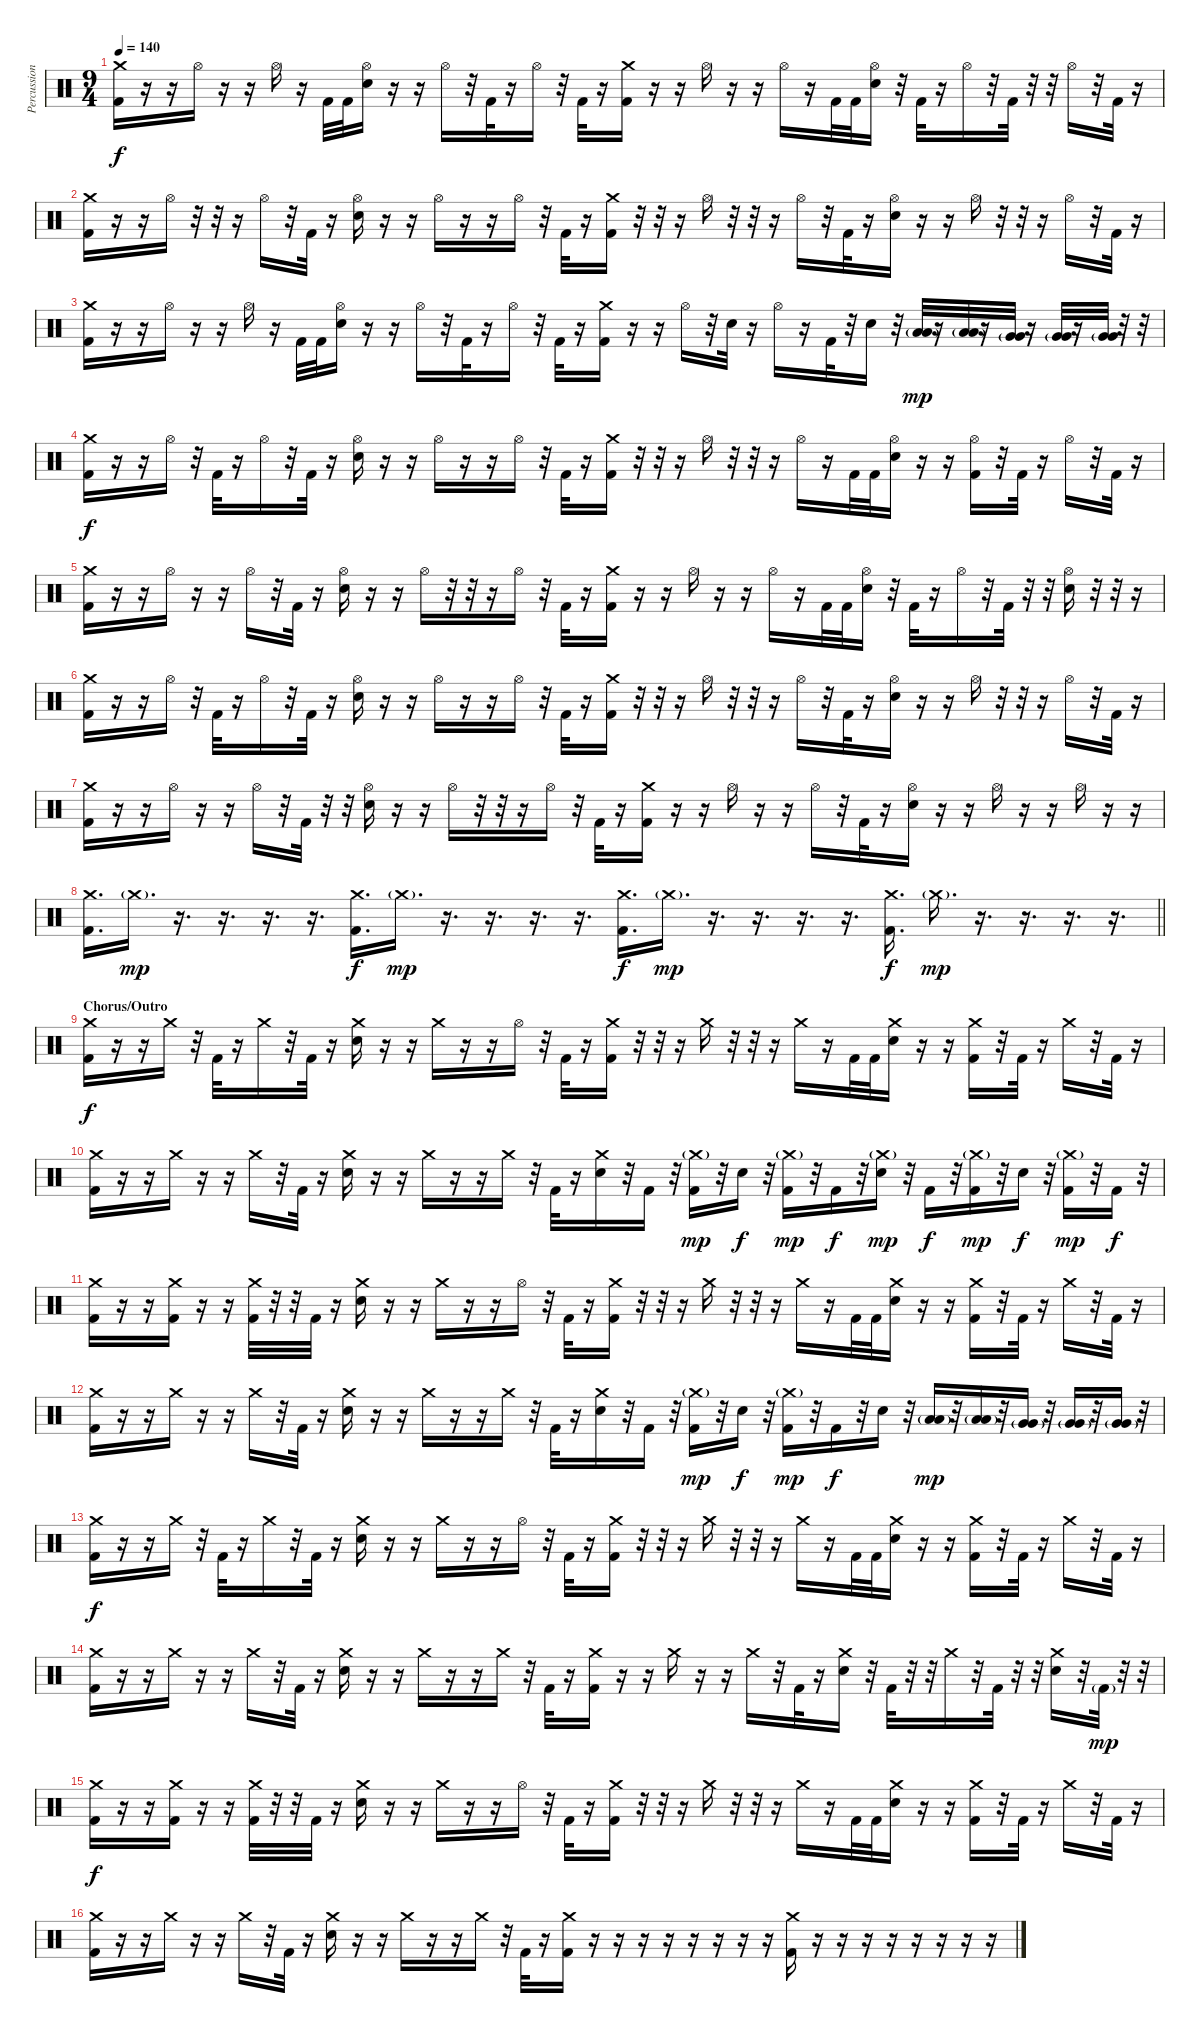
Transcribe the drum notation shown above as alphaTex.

\track ("Percussion" "Percussion") {instrument percussion}
\staff {score}
\articulation defaults
\ts (9 4)
\tempo 140
\clef neutral
\ks c
("Crash medium (hit)" "Kick (hit) 2").16{dy f} r.16 r.16 "Hi-Hat (open)".16 r.16 r.16 "Hi-Hat (open)".16 r.16 "Kick (hit) 2".32 "Kick (hit) 2".32 ("Hi-Hat (open)" "Electric Snare (hit)").16 r.16 r.16 "Hi-Hat (open)".16 r.32 "Kick (hit) 2".32 r.16 "Hi-Hat (open)".16 r.32 "Kick (hit) 2".32 r.16 ("Crash medium (hit)" "Kick (hit) 2").16 r.16 r.16 "Hi-Hat (open)".16 r.16 r.16 "Hi-Hat (open)".16 r.16 "Kick (hit) 2".32 "Kick (hit) 2".32 ("Hi-Hat (open)" "Electric Snare (hit)").16 r.32 "Kick (hit) 2".32 r.16 "Hi-Hat (open)".16 r.32 "Kick (hit) 2".32 r.32 r.32 "Hi-Hat (open)".16 r.32 "Kick (hit) 2".32 r.16 |
("Crash medium (hit)" "Kick (hit) 2").16 r.16 r.16 "Hi-Hat (open)".16 r.32 r.32 r.16 "Hi-Hat (open)".16 r.32 "Kick (hit) 2".32 r.16 ("Hi-Hat (open)" "Electric Snare (hit)").16 r.16 r.16 "Hi-Hat (open)".16 r.16 r.16 "Hi-Hat (open)".16 r.32 "Kick (hit) 2".32 r.16 ("Crash medium (hit)" "Kick (hit) 2").16 r.32 r.32 r.16 "Hi-Hat (open)".16 r.32 r.32 r.16 "Hi-Hat (open)".16 r.32 "Kick (hit) 2".32 r.16 ("Hi-Hat (open)" "Electric Snare (hit)").16 r.16 r.16 "Hi-Hat (open)".16 r.32 r.32 r.16 "Hi-Hat (open)".16 r.32 "Kick (hit) 2".32 r.16 |
("Crash medium (hit)" "Kick (hit) 2").16 r.16 r.16 "Hi-Hat (open)".16 r.16 r.16 "Hi-Hat (open)".16 r.16 "Kick (hit) 2".32 "Kick (hit) 2".32 ("Hi-Hat (open)" "Electric Snare (hit)").16 r.16 r.16 "Hi-Hat (open)".16 r.32 "Kick (hit) 2".32 r.16 "Hi-Hat (open)".16 r.32 "Kick (hit) 2".32 r.16 ("Crash medium (hit)" "Kick (hit) 2").16 r.16 r.16 "Hi-Hat (open)".16 r.32 "Electric Snare (hit)".32 r.16 "Hi-Hat (open)".16 r.16 "Kick (hit) 2".32 r.32 "Electric Snare (hit)".16 r.32 ("Low Tom (hit)"{g} "Low Tom (hit)").32{dy mp} r.16 ("Low Tom (hit)"{g} "Low Tom (hit)").32 r.16 ("Very Low Tom (hit)"{g} "Very Low Tom (hit)").32 r.16 ("Very Low Tom (hit)"{g} "Very Low Tom (hit)").32 r.16 ("Very Low Tom (hit)"{g} "Very Low Tom (hit)").32 r.32 r.32 |
("Crash medium (hit)" "Kick (hit) 2").16{dy f} r.16 r.16 "Hi-Hat (open)".16 r.32 "Kick (hit) 2".32 r.16 "Hi-Hat (open)".16 r.32 "Kick (hit) 2".32 r.16 ("Hi-Hat (open)" "Electric Snare (hit)").16 r.16 r.16 "Hi-Hat (open)".16 r.16 r.16 "Hi-Hat (open)".16 r.32 "Kick (hit) 2".32 r.16 ("Crash medium (hit)" "Kick (hit) 2").16 r.32 r.32 r.16 "Hi-Hat (open)".16 r.32 r.32 r.16 "Hi-Hat (open)".16 r.16 "Kick (hit) 2".32 "Kick (hit) 2".32 ("Hi-Hat (open)" "Electric Snare (hit)").16 r.16 r.16 ("Hi-Hat (open)" "Kick (hit) 2").16 r.32 "Kick (hit) 2".32 r.16 "Hi-Hat (open)".16 r.32 "Kick (hit) 2".32 r.16 |
("Crash medium (hit)" "Kick (hit) 2").16 r.16 r.16 "Hi-Hat (open)".16 r.16 r.16 "Hi-Hat (open)".16 r.32 "Kick (hit) 2".32 r.16 ("Hi-Hat (open)" "Electric Snare (hit)").16 r.16 r.16 "Hi-Hat (open)".16 r.32 r.32 r.16 "Hi-Hat (open)".16 r.32 "Kick (hit) 2".32 r.16 ("Crash medium (hit)" "Kick (hit) 2").16 r.16 r.16 "Hi-Hat (open)".16 r.16 r.16 "Hi-Hat (open)".16 r.16 "Kick (hit) 2".32 "Kick (hit) 2".32 ("Hi-Hat (open)" "Electric Snare (hit)").16 r.32 "Kick (hit) 2".32 r.16 "Hi-Hat (open)".16 r.32 "Kick (hit) 2".32 r.32 r.32 ("Hi-Hat (open)" "Electric Snare (hit)").16 r.32 r.32 r.16 |
("Crash medium (hit)" "Kick (hit) 2").16 r.16 r.16 "Hi-Hat (open)".16 r.32 "Kick (hit) 2".32 r.16 "Hi-Hat (open)".16 r.32 "Kick (hit) 2".32 r.16 ("Hi-Hat (open)" "Electric Snare (hit)").16 r.16 r.16 "Hi-Hat (open)".16 r.16 r.16 "Hi-Hat (open)".16 r.32 "Kick (hit) 2".32 r.16 ("Crash medium (hit)" "Kick (hit) 2").16 r.32 r.32 r.16 "Hi-Hat (open)".16 r.32 r.32 r.16 "Hi-Hat (open)".16 r.32 "Kick (hit) 2".32 r.16 ("Hi-Hat (open)" "Electric Snare (hit)").16 r.16 r.16 "Hi-Hat (open)".16 r.32 r.32 r.16 "Hi-Hat (open)".16 r.32 "Kick (hit) 2".32 r.16 |
("Crash medium (hit)" "Kick (hit) 2").16 r.16 r.16 "Hi-Hat (open)".16 r.16 r.16 "Hi-Hat (open)".16 r.32 "Kick (hit) 2".32 r.32 r.32 ("Hi-Hat (open)" "Electric Snare (hit)").16 r.16 r.16 "Hi-Hat (open)".16 r.32 r.32 r.16 "Hi-Hat (open)".16 r.32 "Kick (hit) 2".32 r.16 ("Crash medium (hit)" "Kick (hit) 2").16 r.16 r.16 "Hi-Hat (open)".16 r.16 r.16 "Hi-Hat (open)".16 r.32 "Kick (hit) 2".32 r.16 ("Hi-Hat (open)" "Electric Snare (hit)").16 r.16 r.16 "Hi-Hat (open)".16 r.16 r.16 "Hi-Hat (open)".16 r.16 r.16 |
\barLineRight lightlight
("Crash medium (hit)" "Kick (hit) 2").16{d} "Crash medium (hit)"{g}.16{d dy mp} r.16{d} r.16{d} r.16{d} r.16{d} ("Crash medium (hit)" "Kick (hit) 2").16{d dy f} "Crash medium (hit)"{g}.16{d dy mp} r.16{d} r.16{d} r.16{d} r.16{d} ("Crash medium (hit)" "Kick (hit) 2").16{d dy f} "Crash medium (hit)"{g}.16{d dy mp} r.16{d} r.16{d} r.16{d} r.16{d} ("Crash medium (hit)" "Kick (hit) 2").16{d dy f} "Crash medium (hit)"{g}.16{d dy mp} r.16{d} r.16{d} r.16{d} r.16{d} |
\section ("" "Chorus/Outro")
("Crash medium (hit)" "Kick (hit) 2").16{dy f} r.16 r.16 "Crash medium (hit)".16 r.32 "Kick (hit) 2".32 r.16 "Crash medium (hit)".16 r.32 "Kick (hit) 2".32 r.16 ("Crash medium (hit)" "Electric Snare (hit)").16 r.16 r.16 "Crash medium (hit)".16 r.16 r.16 "Hi-Hat (open)".16 r.32 "Kick (hit) 2".32 r.16 ("Crash medium (hit)" "Kick (hit) 2").16 r.32 r.32 r.16 "Crash medium (hit)".16 r.32 r.32 r.16 "Crash medium (hit)".16 r.16 "Kick (hit) 2".32 "Kick (hit) 2".32 ("Crash medium (hit)" "Electric Snare (hit)").16 r.16 r.16 ("Crash medium (hit)" "Kick (hit) 2").16 r.32 "Kick (hit) 2".32 r.16 "Crash medium (hit)".16 r.32 "Kick (hit) 2".32 r.16 |
("Crash medium (hit)" "Kick (hit) 2").16 r.16 r.16 "Crash medium (hit)".16 r.16 r.16 "Crash medium (hit)".16 r.32 "Kick (hit) 2".32 r.16 ("Crash medium (hit)" "Electric Snare (hit)").16 r.16 r.16 "Crash medium (hit)".16 r.16 r.16 "Crash medium (hit)".16 r.32 "Kick (hit) 2".32 r.16 ("Crash medium (hit)" "Electric Snare (hit)").16 r.32 "Kick (hit) 2".16 r.32 ("Crash medium (hit)"{g} "Kick (hit) 2").16{dy mp} r.32 "Electric Snare (hit)".16{dy f} r.32 ("Crash medium (hit)"{g} "Kick (hit) 2").16{dy mp} r.32 "Kick (hit) 2".16{dy f} r.32 ("Crash medium (hit)"{g} "Electric Snare (hit)").16{dy mp} r.32 "Kick (hit) 2".16{dy f} r.32 ("Crash medium (hit)"{g} "Kick (hit) 2").16{dy mp} r.32 "Electric Snare (hit)".16{dy f} r.32 ("Crash medium (hit)"{g} "Kick (hit) 2").16{dy mp} r.32 "Kick (hit) 2".16{dy f} r.32 |
("Crash medium (hit)" "Kick (hit) 2").16 r.16 r.16 ("Crash medium (hit)" "Kick (hit) 2").16 r.16 r.16 ("Crash medium (hit)" "Kick (hit) 2").32 r.32 r.32 "Kick (hit) 2".32 r.16 ("Crash medium (hit)" "Electric Snare (hit)").16 r.16 r.16 "Crash medium (hit)".16 r.16 r.16 "Hi-Hat (open)".16 r.32 "Kick (hit) 2".32 r.16 ("Crash medium (hit)" "Kick (hit) 2").16 r.32 r.32 r.16 "Crash medium (hit)".16 r.32 r.32 r.16 "Crash medium (hit)".16 r.16 "Kick (hit) 2".32 "Kick (hit) 2".32 ("Crash medium (hit)" "Electric Snare (hit)").16 r.16 r.16 ("Crash medium (hit)" "Kick (hit) 2").16 r.32 "Kick (hit) 2".32 r.16 "Crash medium (hit)".16 r.32 "Kick (hit) 2".32 r.16 |
("Crash medium (hit)" "Kick (hit) 2").16 r.16 r.16 "Crash medium (hit)".16 r.16 r.16 "Crash medium (hit)".16 r.32 "Kick (hit) 2".32 r.16 ("Crash medium (hit)" "Electric Snare (hit)").16 r.16 r.16 "Crash medium (hit)".16 r.16 r.16 "Crash medium (hit)".16 r.32 "Kick (hit) 2".32 r.16 ("Crash medium (hit)" "Electric Snare (hit)").16 r.32 "Kick (hit) 2".16 r.32 ("Crash medium (hit)"{g} "Kick (hit) 2").16{dy mp} r.32 "Electric Snare (hit)".16{dy f} r.32 ("Crash medium (hit)"{g} "Kick (hit) 2").16{dy mp} r.32 "Kick (hit) 2".16{dy f} r.32 "Electric Snare (hit)".16 r.32 ("Low Tom (hit)"{g} "Low Tom (hit)").16{dy mp} r.32 ("Low Tom (hit)"{g} "Low Tom (hit)").16 r.32 ("Very Low Tom (hit)"{g} "Very Low Tom (hit)").16 r.32 ("Very Low Tom (hit)"{g} "Very Low Tom (hit)").16 r.32 ("Very Low Tom (hit)"{g} "Very Low Tom (hit)").16 r.32 |
("Crash medium (hit)" "Kick (hit) 2").16{dy f} r.16 r.16 "Crash medium (hit)".16 r.32 "Kick (hit) 2".32 r.16 "Crash medium (hit)".16 r.32 "Kick (hit) 2".32 r.16 ("Crash medium (hit)" "Electric Snare (hit)").16 r.16 r.16 "Crash medium (hit)".16 r.16 r.16 "Hi-Hat (open)".16 r.32 "Kick (hit) 2".32 r.16 ("Crash medium (hit)" "Kick (hit) 2").16 r.32 r.32 r.16 "Crash medium (hit)".16 r.32 r.32 r.16 "Crash medium (hit)".16 r.16 "Kick (hit) 2".32 "Kick (hit) 2".32 ("Crash medium (hit)" "Electric Snare (hit)").16 r.16 r.16 ("Crash medium (hit)" "Kick (hit) 2").16 r.32 "Kick (hit) 2".32 r.16 "Crash medium (hit)".16 r.32 "Kick (hit) 2".32 r.16 |
("Crash medium (hit)" "Kick (hit) 2").16 r.16 r.16 "Crash medium (hit)".16 r.16 r.16 "Crash medium (hit)".16 r.32 "Kick (hit) 2".32 r.16 ("Crash medium (hit)" "Electric Snare (hit)").16 r.16 r.16 "Crash medium (hit)".16 r.16 r.16 "Crash medium (hit)".16 r.32 "Kick (hit) 2".32 r.16 ("Crash medium (hit)" "Kick (hit) 2").16 r.16 r.16 "Crash medium (hit)".16 r.16 r.16 "Crash medium (hit)".16 r.32 "Kick (hit) 2".32 r.16 ("Crash medium (hit)" "Electric Snare (hit)").16 r.32 "Kick (hit) 2".32 r.32 r.32 "Crash medium (hit)".16 r.32 "Kick (hit) 2".32 r.32 r.32 ("Crash medium (hit)" "Electric Snare (hit)").16 r.32 "Kick (hit) 2"{g}.32{dy mp} r.32 r.32 |
("Crash medium (hit)" "Kick (hit) 2").16{dy f} r.16 r.16 ("Crash medium (hit)" "Kick (hit) 2").16 r.16 r.16 ("Crash medium (hit)" "Kick (hit) 2").32 r.32 r.32 "Kick (hit) 2".32 r.16 ("Crash medium (hit)" "Electric Snare (hit)").16 r.16 r.16 "Crash medium (hit)".16 r.16 r.16 "Hi-Hat (open)".16 r.32 "Kick (hit) 2".32 r.16 ("Crash medium (hit)" "Kick (hit) 2").16 r.32 r.32 r.16 "Crash medium (hit)".16 r.32 r.32 r.16 "Crash medium (hit)".16 r.16 "Kick (hit) 2".32 "Kick (hit) 2".32 ("Crash medium (hit)" "Electric Snare (hit)").16 r.16 r.16 ("Crash medium (hit)" "Kick (hit) 2").16 r.32 "Kick (hit) 2".32 r.16 "Crash medium (hit)".16 r.32 "Kick (hit) 2".32 r.16 |
("Crash medium (hit)" "Kick (hit) 2").16 r.16 r.16 "Crash medium (hit)".16 r.16 r.16 "Crash medium (hit)".16 r.32 "Kick (hit) 2".32 r.16 ("Crash medium (hit)" "Electric Snare (hit)").16 r.16 r.16 "Crash medium (hit)".16 r.16 r.16 "Crash medium (hit)".16 r.32 "Kick (hit) 2".32 r.16 ("Crash medium (hit)" "Kick (hit) 2").16 r.16 r.16 r.16 r.16 r.16 r.16 r.16 r.16 ("Crash medium (hit)" "Kick (hit) 2").16 r.16 r.16 r.16 r.16 r.16 r.16 r.16 r.16
